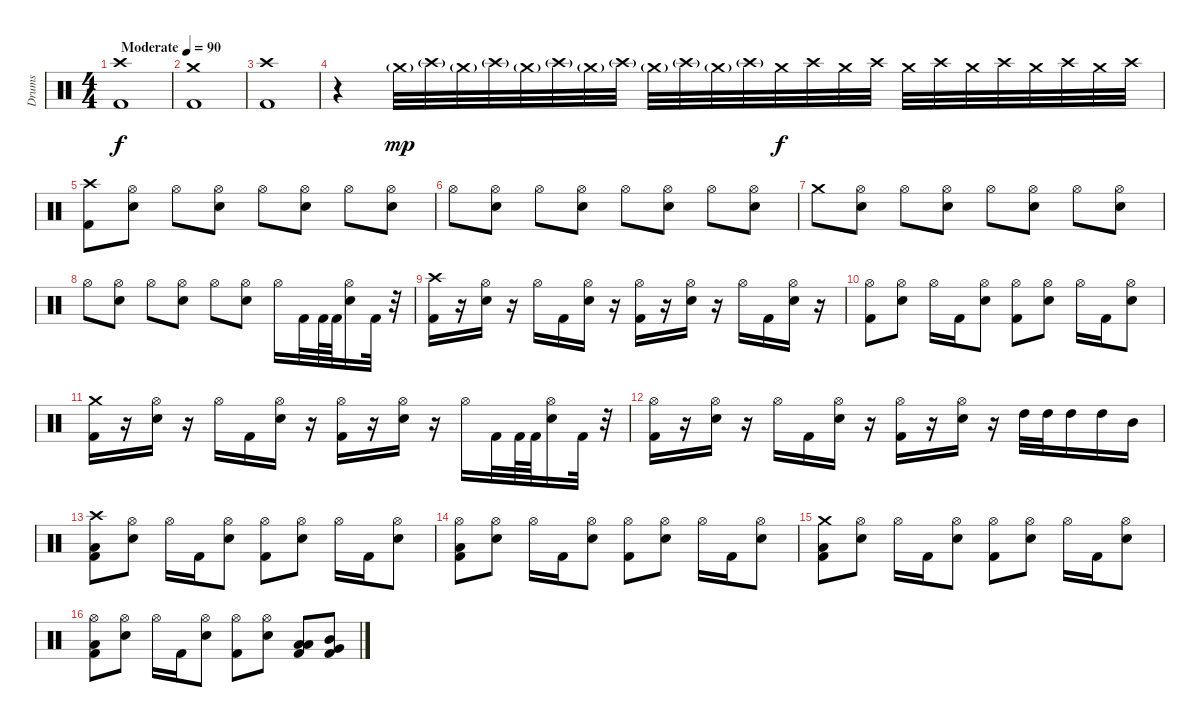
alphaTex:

\track ("Drums" "Drums") {instrument percussion}
\staff {score}
\articulation defaults
\ts (4 4)
\tempo (90 "Moderate")
\clef neutral
\ks c
("Crash high (hit)" "Kick (hit) 2").1{dy f} |
("Crash medium (hit)" "Kick (hit) 2").1 |
("Crash high (hit)" "Kick (hit) 2").1 |
r.4 "Crash medium (hit)"{g}.32{dy mp} "Crash high (hit)"{g}.32 "Crash medium (hit)"{g}.32 "Crash high (hit)"{g}.32 "Crash medium (hit)"{g}.32 "Crash high (hit)"{g}.32 "Crash medium (hit)"{g}.32 "Crash high (hit)"{g}.32 "Crash medium (hit)"{g}.32 "Crash high (hit)"{g}.32 "Crash medium (hit)"{g}.32 "Crash high (hit)"{g}.32 "Crash medium (hit)".32{dy f} "Crash high (hit)".32 "Crash medium (hit)".32 "Crash high (hit)".32 "Crash medium (hit)".32 "Crash high (hit)".32 "Crash medium (hit)".32 "Crash high (hit)".32 "Crash medium (hit)".32 "Crash high (hit)".32 "Crash medium (hit)".32 "Crash high (hit)".32 |
("Crash high (hit)" "Kick (hit) 2").8 ("Hi-Hat (open)" "Snare (hit) 2").8 "Hi-Hat (open)".8 ("Hi-Hat (open)" "Snare (hit) 2").8 "Hi-Hat (open)".8 ("Hi-Hat (open)" "Snare (hit) 2").8 "Hi-Hat (open)".8 ("Hi-Hat (open)" "Snare (hit) 2").8 |
"Hi-Hat (open)".8 ("Hi-Hat (open)" "Snare (hit) 2").8 "Hi-Hat (open)".8 ("Hi-Hat (open)" "Snare (hit) 2").8 "Hi-Hat (open)".8 ("Hi-Hat (open)" "Snare (hit) 2").8 "Hi-Hat (open)".8 ("Hi-Hat (open)" "Snare (hit) 2").8 |
"Crash medium (hit)".8 ("Hi-Hat (open)" "Snare (hit) 2").8 "Hi-Hat (open)".8 ("Hi-Hat (open)" "Snare (hit) 2").8 "Hi-Hat (open)".8 ("Hi-Hat (open)" "Snare (hit) 2").8 "Hi-Hat (open)".8 ("Hi-Hat (open)" "Snare (hit) 2").8 |
"Hi-Hat (open)".8 ("Hi-Hat (open)" "Snare (hit) 2").8 "Hi-Hat (open)".8 ("Hi-Hat (open)" "Snare (hit) 2").8 "Hi-Hat (open)".8 ("Hi-Hat (open)" "Snare (hit) 2").8 "Hi-Hat (open)".16 "Kick (hit) 2".32 "Kick (hit) 2".64 "Kick (hit) 2".64 ("Hi-Hat (open)" "Snare (hit) 2").16 "Kick (hit) 2".32 r.32 |
("Crash high (hit)" "Kick (hit) 2").16 r.16 ("Hi-Hat (open)" "Snare (hit) 2").16 r.16 "Hi-Hat (open)".16 "Kick (hit) 2".16 ("Hi-Hat (open)" "Snare (hit) 2").16 r.16 ("Hi-Hat (open)" "Kick (hit) 2").16 r.16 ("Hi-Hat (open)" "Snare (hit) 2").16 r.16 "Hi-Hat (open)".16 "Kick (hit) 2".16 ("Hi-Hat (open)" "Snare (hit) 2").16 r.16 |
("Hi-Hat (open)" "Kick (hit) 2").8 ("Hi-Hat (open)" "Snare (hit) 2").8 "Hi-Hat (open)".16 "Kick (hit) 2".16 ("Hi-Hat (open)" "Snare (hit) 2").8 ("Hi-Hat (open)" "Kick (hit) 2").8 ("Hi-Hat (open)" "Snare (hit) 2").8 "Hi-Hat (open)".16 "Kick (hit) 2".16 ("Hi-Hat (open)" "Snare (hit) 2").8 |
("Crash medium (hit)" "Kick (hit) 2").16 r.16 ("Hi-Hat (open)" "Snare (hit) 2").16 r.16 "Hi-Hat (open)".16 "Kick (hit) 2".16 ("Hi-Hat (open)" "Snare (hit) 2").16 r.16 ("Hi-Hat (open)" "Kick (hit) 2").16 r.16 ("Hi-Hat (open)" "Snare (hit) 2").16 r.16 "Hi-Hat (open)".16 "Kick (hit) 2".32 "Kick (hit) 2".64 "Kick (hit) 2".64 ("Hi-Hat (open)" "Snare (hit) 2").16 "Kick (hit) 2".32 r.32 |
("Hi-Hat (open)" "Kick (hit) 2").16 r.16 ("Hi-Hat (open)" "Snare (hit) 2").16 r.16 "Hi-Hat (open)".16 "Kick (hit) 2".16 ("Hi-Hat (open)" "Snare (hit) 2").16 r.16 ("Hi-Hat (open)" "Kick (hit) 2").16 r.16 ("Hi-Hat (open)" "Snare (hit) 2").16 r.16 "High Tom (hit)".32 "High Tom (hit)".32 "High Tom (hit)".16 "High Tom (hit)".16 "Mid Tom (hit)".16 |
("Crash high (hit)" "Low Floor Tom (hit)" "Kick (hit) 2").8 ("Hi-Hat (open)" "Snare (hit) 2").8 "Hi-Hat (open)".16 "Kick (hit) 2".16 ("Hi-Hat (open)" "Snare (hit) 2").8 ("Hi-Hat (open)" "Kick (hit) 2").8 ("Hi-Hat (open)" "Snare (hit) 2").8 "Hi-Hat (open)".16 "Kick (hit) 2".16 ("Hi-Hat (open)" "Snare (hit) 2").8 |
("Hi-Hat (open)" "Low Floor Tom (hit)" "Kick (hit) 2").8 ("Hi-Hat (open)" "Snare (hit) 2").8 "Hi-Hat (open)".16 "Kick (hit) 2".16 ("Hi-Hat (open)" "Snare (hit) 2").8 ("Hi-Hat (open)" "Kick (hit) 2").8 ("Hi-Hat (open)" "Snare (hit) 2").8 "Hi-Hat (open)".16 "Kick (hit) 2".16 ("Hi-Hat (open)" "Snare (hit) 2").8 |
("Crash medium (hit)" "Low Floor Tom (hit)" "Kick (hit) 2").8 ("Hi-Hat (open)" "Snare (hit) 2").8 "Hi-Hat (open)".16 "Kick (hit) 2".16 ("Hi-Hat (open)" "Snare (hit) 2").8 ("Hi-Hat (open)" "Kick (hit) 2").8 ("Hi-Hat (open)" "Snare (hit) 2").8 "Hi-Hat (open)".16 "Kick (hit) 2".16 ("Hi-Hat (open)" "Snare (hit) 2").8 |
("Hi-Hat (open)" "Low Floor Tom (hit)" "Kick (hit) 2").8 ("Hi-Hat (open)" "Snare (hit) 2").8 "Hi-Hat (open)".16 "Kick (hit) 2".16 ("Hi-Hat (open)" "Snare (hit) 2").8 ("Hi-Hat (open)" "Kick (hit) 2").8 ("Hi-Hat (open)" "Snare (hit) 2").8 ("Low Tom (hit)" "Low Floor Tom (hit)" "Kick (hit) 2").8 ("Mid Tom (hit)" "Very Low Tom (hit)" "Kick (hit) 2").8
